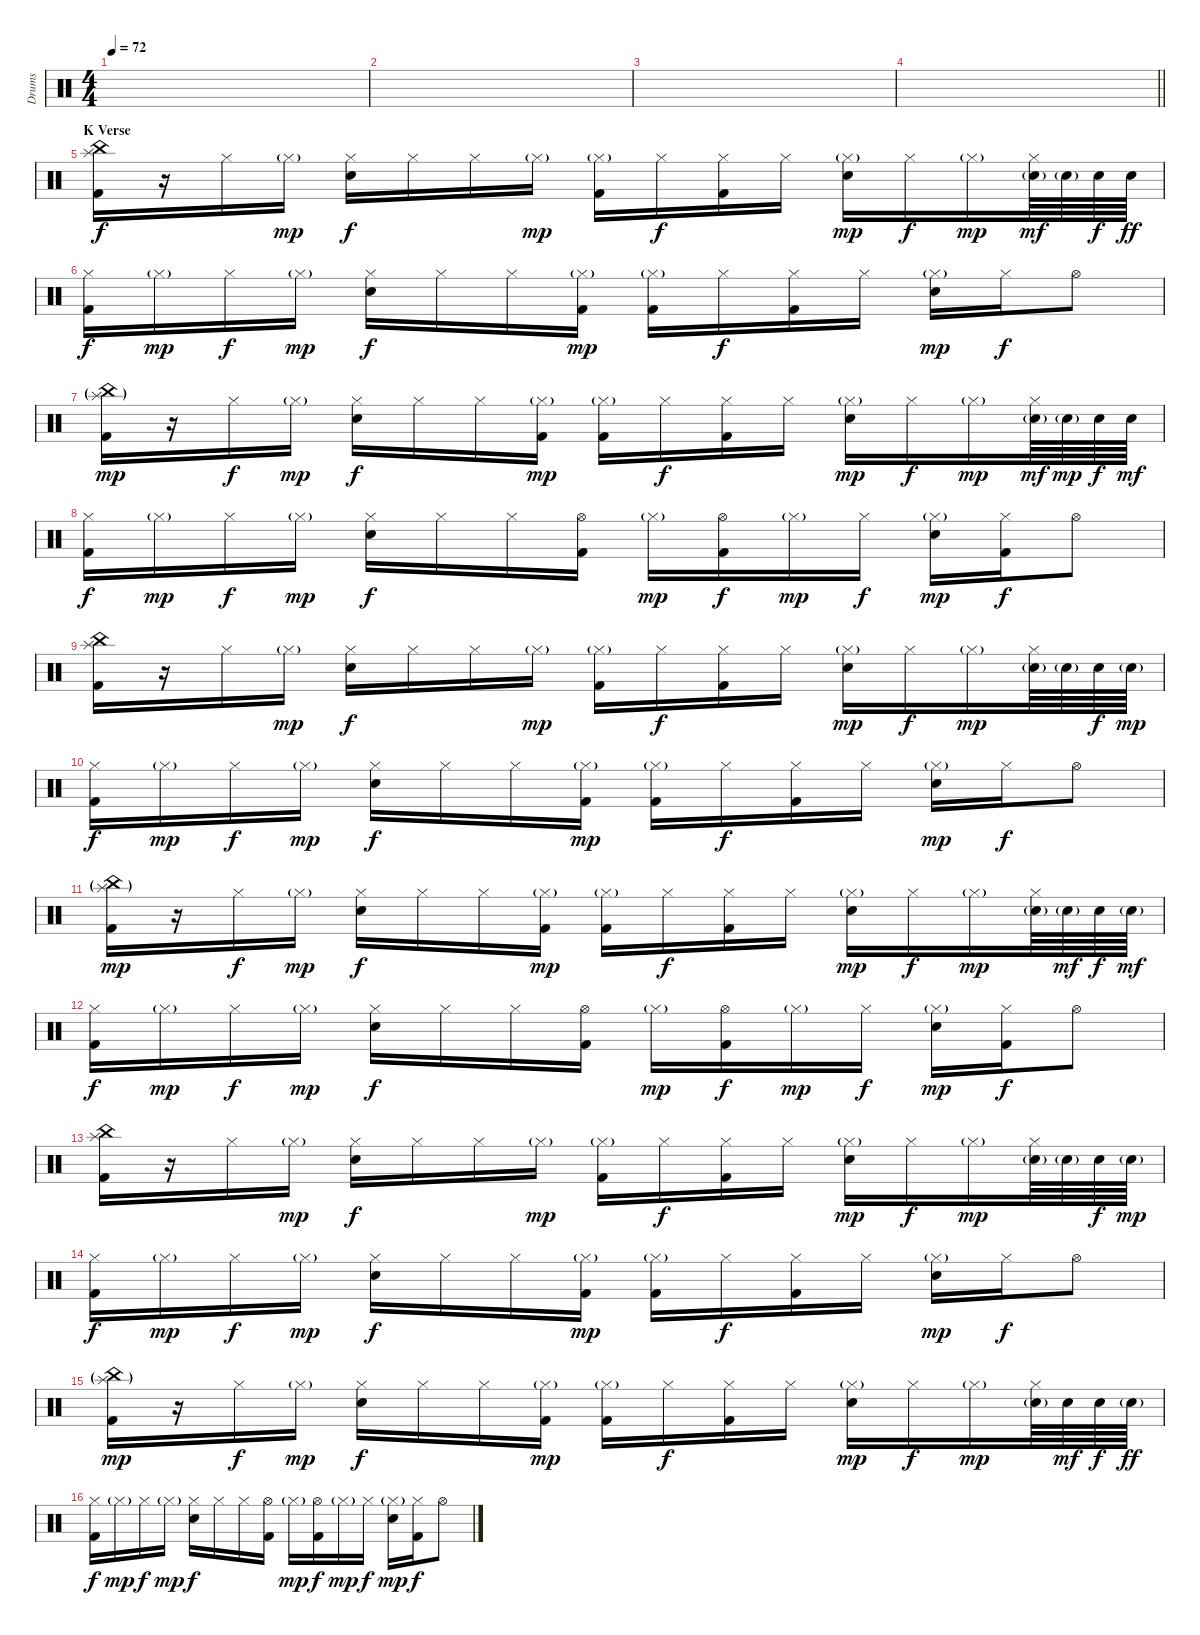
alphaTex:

\track ("Drums" "Drums") {instrument percussion}
\staff {score}
\articulation defaults
\ts (4 4)
\tempo 72
\clef neutral
\ks c
|
|
|
\barLineRight lightlight
|
\section ("" "K Verse")
("Splash (hit)" "China (hit)" "Kick (hit) 2").16{volume 13} r.16 "Hi-Hat (closed)".16 "Hi-Hat (closed)"{g}.16{dy mp} ("Hi-Hat (closed)" "Electric Snare (hit)").16{dy f} "Hi-Hat (closed)".16 "Hi-Hat (closed)".16 "Hi-Hat (closed)"{g}.16{dy mp} ("Hi-Hat (closed)"{g} "Kick (hit) 2").16 "Hi-Hat (closed)".16{dy f} ("Hi-Hat (closed)" "Kick (hit) 2").16 "Hi-Hat (closed)".16 ("Hi-Hat (closed)"{g} "Electric Snare (hit)").16{dy mp} "Hi-Hat (closed)".16{dy f} "Hi-Hat (closed)"{g}.16{dy mp} ("Hi-Hat (closed)" "Electric Snare (hit)"{g}).64{dy mf} "Electric Snare (hit)"{g}.64 "Electric Snare (hit)".64{dy f} "Electric Snare (hit)".64{dy ff} |
("Hi-Hat (closed)" "Kick (hit) 2").16{dy f} "Hi-Hat (closed)"{g}.16{dy mp} "Hi-Hat (closed)".16{dy f} "Hi-Hat (closed)"{g}.16{dy mp} ("Hi-Hat (closed)" "Electric Snare (hit)").16{dy f} "Hi-Hat (closed)".16 "Hi-Hat (closed)".16 ("Hi-Hat (closed)"{g} "Kick (hit) 2").16{dy mp} ("Hi-Hat (closed)"{g} "Kick (hit) 2").16 "Hi-Hat (closed)".16{dy f} ("Hi-Hat (closed)" "Kick (hit) 2").16 "Hi-Hat (closed)".16 ("Hi-Hat (closed)"{g} "Electric Snare (hit)").16{dy mp} "Hi-Hat (closed)".16{dy f} "Hi-Hat (open)".8 |
("Splash (hit)"{g} "China (hit)"{g} "Kick (hit) 2").16{dy mp} r.16 "Hi-Hat (closed)".16{dy f} "Hi-Hat (closed)"{g}.16{dy mp} ("Hi-Hat (closed)" "Electric Snare (hit)").16{dy f} "Hi-Hat (closed)".16 "Hi-Hat (closed)".16 ("Hi-Hat (closed)"{g} "Kick (hit) 2").16{dy mp} ("Hi-Hat (closed)"{g} "Kick (hit) 2").16 "Hi-Hat (closed)".16{dy f} ("Hi-Hat (closed)" "Kick (hit) 2").16 "Hi-Hat (closed)".16 ("Hi-Hat (closed)"{g} "Electric Snare (hit)").16{dy mp} "Hi-Hat (closed)".16{dy f} "Hi-Hat (closed)"{g}.16{dy mp} ("Hi-Hat (closed)" "Electric Snare (hit)"{g}).64{dy mf} "Electric Snare (hit)"{g}.64{dy mp} "Electric Snare (hit)".64{dy f} "Electric Snare (hit)".64{dy mf} |
("Hi-Hat (closed)" "Kick (hit) 2").16{dy f} "Hi-Hat (closed)"{g}.16{dy mp} "Hi-Hat (closed)".16{dy f} "Hi-Hat (closed)"{g}.16{dy mp} ("Hi-Hat (closed)" "Electric Snare (hit)").16{dy f} "Hi-Hat (closed)".16 "Hi-Hat (closed)".16 ("Hi-Hat (open)" "Kick (hit) 2").16 "Hi-Hat (closed)"{g}.16{dy mp} ("Hi-Hat (open)" "Kick (hit) 2").16{dy f} "Hi-Hat (closed)"{g}.16{dy mp} "Hi-Hat (closed)".16{dy f} ("Hi-Hat (closed)"{g} "Electric Snare (hit)").16{dy mp} ("Hi-Hat (closed)" "Kick (hit) 2").16{dy f} "Hi-Hat (open)".8 |
("Splash (hit)" "China (hit)" "Kick (hit) 2").16 r.16 "Hi-Hat (closed)".16 "Hi-Hat (closed)"{g}.16{dy mp} ("Hi-Hat (closed)" "Electric Snare (hit)").16{dy f} "Hi-Hat (closed)".16 "Hi-Hat (closed)".16 "Hi-Hat (closed)"{g}.16{dy mp} ("Hi-Hat (closed)"{g} "Kick (hit) 2").16 "Hi-Hat (closed)".16{dy f} ("Hi-Hat (closed)" "Kick (hit) 2").16 "Hi-Hat (closed)".16 ("Hi-Hat (closed)"{g} "Electric Snare (hit)").16{dy mp} "Hi-Hat (closed)".16{dy f} "Hi-Hat (closed)"{g}.16{dy mp} ("Hi-Hat (closed)" "Electric Snare (hit)"{g}).64 "Electric Snare (hit)"{g}.64 "Electric Snare (hit)".64{dy f} "Electric Snare (hit)"{g}.64{dy mp} |
("Hi-Hat (closed)" "Kick (hit) 2").16{dy f} "Hi-Hat (closed)"{g}.16{dy mp} "Hi-Hat (closed)".16{dy f} "Hi-Hat (closed)"{g}.16{dy mp} ("Hi-Hat (closed)" "Electric Snare (hit)").16{dy f} "Hi-Hat (closed)".16 "Hi-Hat (closed)".16 ("Hi-Hat (closed)"{g} "Kick (hit) 2").16{dy mp} ("Hi-Hat (closed)"{g} "Kick (hit) 2").16 "Hi-Hat (closed)".16{dy f} ("Hi-Hat (closed)" "Kick (hit) 2").16 "Hi-Hat (closed)".16 ("Hi-Hat (closed)"{g} "Electric Snare (hit)").16{dy mp} "Hi-Hat (closed)".16{dy f} "Hi-Hat (open)".8 |
("Splash (hit)"{g} "China (hit)"{g} "Kick (hit) 2").16{dy mp} r.16 "Hi-Hat (closed)".16{dy f} "Hi-Hat (closed)"{g}.16{dy mp} ("Hi-Hat (closed)" "Electric Snare (hit)").16{dy f} "Hi-Hat (closed)".16 "Hi-Hat (closed)".16 ("Hi-Hat (closed)"{g} "Kick (hit) 2").16{dy mp} ("Hi-Hat (closed)"{g} "Kick (hit) 2").16 "Hi-Hat (closed)".16{dy f} ("Hi-Hat (closed)" "Kick (hit) 2").16 "Hi-Hat (closed)".16 ("Hi-Hat (closed)"{g} "Electric Snare (hit)").16{dy mp} "Hi-Hat (closed)".16{dy f} "Hi-Hat (closed)"{g}.16{dy mp} ("Hi-Hat (closed)" "Electric Snare (hit)"{g}).64 "Electric Snare (hit)"{g}.64{dy mf} "Electric Snare (hit)".64{dy f} "Electric Snare (hit)"{g}.64{dy mf} |
("Hi-Hat (closed)" "Kick (hit) 2").16{dy f} "Hi-Hat (closed)"{g}.16{dy mp} "Hi-Hat (closed)".16{dy f} "Hi-Hat (closed)"{g}.16{dy mp} ("Hi-Hat (closed)" "Electric Snare (hit)").16{dy f} "Hi-Hat (closed)".16 "Hi-Hat (closed)".16 ("Hi-Hat (open)" "Kick (hit) 2").16 "Hi-Hat (closed)"{g}.16{dy mp} ("Hi-Hat (open)" "Kick (hit) 2").16{dy f} "Hi-Hat (closed)"{g}.16{dy mp} "Hi-Hat (closed)".16{dy f} ("Hi-Hat (closed)"{g} "Electric Snare (hit)").16{dy mp} ("Hi-Hat (closed)" "Kick (hit) 2").16{dy f} "Hi-Hat (open)".8 |
("Splash (hit)" "China (hit)" "Kick (hit) 2").16 r.16 "Hi-Hat (closed)".16 "Hi-Hat (closed)"{g}.16{dy mp} ("Hi-Hat (closed)" "Electric Snare (hit)").16{dy f} "Hi-Hat (closed)".16 "Hi-Hat (closed)".16 "Hi-Hat (closed)"{g}.16{dy mp} ("Hi-Hat (closed)"{g} "Kick (hit) 2").16 "Hi-Hat (closed)".16{dy f} ("Hi-Hat (closed)" "Kick (hit) 2").16 "Hi-Hat (closed)".16 ("Hi-Hat (closed)"{g} "Electric Snare (hit)").16{dy mp} "Hi-Hat (closed)".16{dy f} "Hi-Hat (closed)"{g}.16{dy mp} ("Hi-Hat (closed)" "Electric Snare (hit)"{g}).64 "Electric Snare (hit)"{g}.64 "Electric Snare (hit)".64{dy f} "Electric Snare (hit)"{g}.64{dy mp} |
("Hi-Hat (closed)" "Kick (hit) 2").16{dy f} "Hi-Hat (closed)"{g}.16{dy mp} "Hi-Hat (closed)".16{dy f} "Hi-Hat (closed)"{g}.16{dy mp} ("Hi-Hat (closed)" "Electric Snare (hit)").16{dy f} "Hi-Hat (closed)".16 "Hi-Hat (closed)".16 ("Hi-Hat (closed)"{g} "Kick (hit) 2").16{dy mp} ("Hi-Hat (closed)"{g} "Kick (hit) 2").16 "Hi-Hat (closed)".16{dy f} ("Hi-Hat (closed)" "Kick (hit) 2").16 "Hi-Hat (closed)".16 ("Hi-Hat (closed)"{g} "Electric Snare (hit)").16{dy mp} "Hi-Hat (closed)".16{dy f} "Hi-Hat (open)".8 |
("Splash (hit)"{g} "China (hit)"{g} "Kick (hit) 2").16{dy mp} r.16 "Hi-Hat (closed)".16{dy f} "Hi-Hat (closed)"{g}.16{dy mp} ("Hi-Hat (closed)" "Electric Snare (hit)").16{dy f} "Hi-Hat (closed)".16 "Hi-Hat (closed)".16 ("Hi-Hat (closed)"{g} "Kick (hit) 2").16{dy mp} ("Hi-Hat (closed)"{g} "Kick (hit) 2").16 "Hi-Hat (closed)".16{dy f} ("Hi-Hat (closed)" "Kick (hit) 2").16 "Hi-Hat (closed)".16 ("Hi-Hat (closed)"{g} "Electric Snare (hit)").16{dy mp} "Hi-Hat (closed)".16{dy f} "Hi-Hat (closed)"{g}.16{dy mp} ("Hi-Hat (closed)" "Electric Snare (hit)"{g}).64 "Electric Snare (hit)".64{dy mf} "Electric Snare (hit)".64{dy f} "Electric Snare (hit)"{g}.64{dy ff} |
("Hi-Hat (closed)" "Kick (hit) 2").16{dy f} "Hi-Hat (closed)"{g}.16{dy mp} "Hi-Hat (closed)".16{dy f} "Hi-Hat (closed)"{g}.16{dy mp} ("Hi-Hat (closed)" "Electric Snare (hit)").16{dy f} "Hi-Hat (closed)".16 "Hi-Hat (closed)".16 ("Hi-Hat (open)" "Kick (hit) 2").16 "Hi-Hat (closed)"{g}.16{dy mp} ("Hi-Hat (open)" "Kick (hit) 2").16{dy f} "Hi-Hat (closed)"{g}.16{dy mp} "Hi-Hat (closed)".16{dy f} ("Hi-Hat (closed)"{g} "Electric Snare (hit)").16{dy mp} ("Hi-Hat (closed)" "Kick (hit) 2").16{dy f} "Hi-Hat (open)".8
